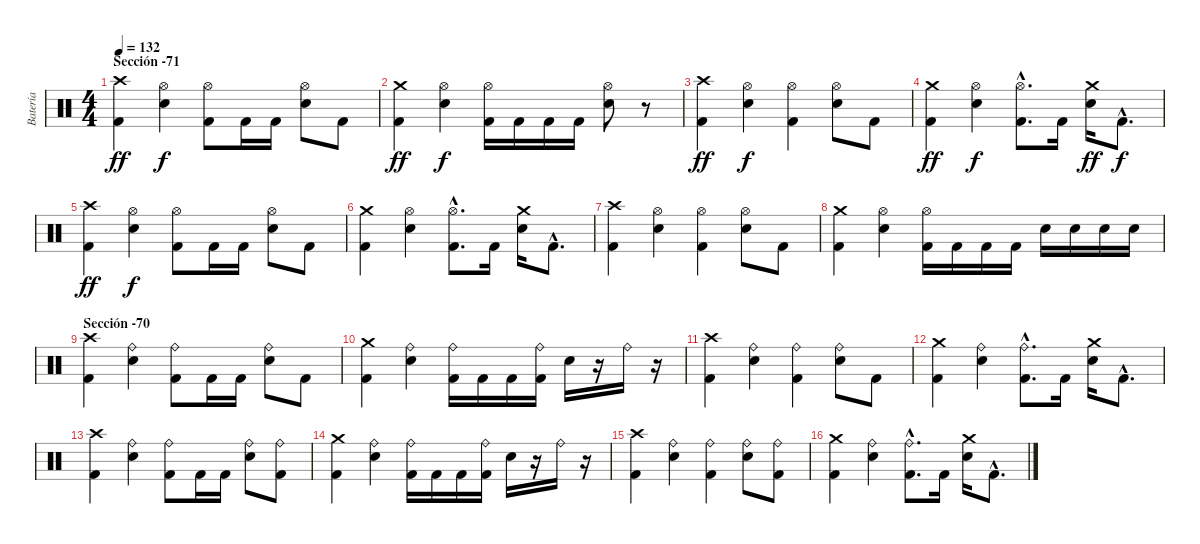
\track ("Batería" "Batería") {instrument percussion}
\staff {score}
\articulation defaults
\ts (4 4)
\section ("" "Sección -71")
\tempo 132
\clef neutral
\ks c
("Crash high (hit)" "Kick (hit) 2").4{dy ff volume 14} ("Hi-Hat (open)" "Snare (hit) 2").4{dy f} ("Hi-Hat (open)" "Kick (hit) 2").8 "Kick (hit) 2".16 "Kick (hit) 2".16 ("Hi-Hat (open)" "Snare (hit) 2").8 "Kick (hit) 2".8 |
("Crash medium (hit)" "Kick (hit) 2").4{dy ff} ("Hi-Hat (open)" "Snare (hit) 2").4{dy f} ("Hi-Hat (open)" "Kick (hit) 2").16 "Kick (hit) 2".16 "Kick (hit) 2".16 "Kick (hit) 2".16 ("Hi-Hat (open)" "Snare (hit) 2").8 r.8 |
("Crash high (hit)" "Kick (hit) 2").4{dy ff} ("Hi-Hat (open)" "Snare (hit) 2").4{dy f} ("Hi-Hat (open)" "Kick (hit) 2").4 ("Hi-Hat (open)" "Snare (hit) 2").8 "Kick (hit) 2".8 |
("Crash medium (hit)" "Kick (hit) 2").4{dy ff} ("Hi-Hat (open)" "Snare (hit) 2").4{dy f} ("Hi-Hat (open)"{hac} "Kick (hit) 2"{hac}).8{d} "Kick (hit) 2".16 ("Crash medium (hit)" "Snare (hit) 2").16{dy ff} "Kick (hit) 2"{hac}.8{d dy f} |
("Crash high (hit)" "Kick (hit) 2").4{dy ff} ("Hi-Hat (open)" "Snare (hit) 2").4{dy f} ("Hi-Hat (open)" "Kick (hit) 2").8 "Kick (hit) 2".16 "Kick (hit) 2".16 ("Hi-Hat (open)" "Snare (hit) 2").8 "Kick (hit) 2".8 |
("Crash medium (hit)" "Kick (hit) 2").4 ("Hi-Hat (open)" "Snare (hit) 2").4 ("Hi-Hat (open)"{hac} "Kick (hit) 2"{hac}).8{d} "Kick (hit) 2".16 ("Crash medium (hit)" "Snare (hit) 2").16 "Kick (hit) 2"{hac}.8{d} |
("Crash high (hit)" "Kick (hit) 2").4 ("Hi-Hat (open)" "Snare (hit) 2").4 ("Hi-Hat (open)" "Kick (hit) 2").4 ("Hi-Hat (open)" "Snare (hit) 2").8 "Kick (hit) 2".8 |
("Crash medium (hit)" "Kick (hit) 2").4 ("Hi-Hat (open)" "Snare (hit) 2").4 ("Hi-Hat (open)" "Kick (hit) 2").16 "Kick (hit) 2".16 "Kick (hit) 2".16 "Kick (hit) 2".16 "Snare (hit) 2".16 "Snare (hit) 2".16 "Snare (hit) 2".16 "Snare (hit) 2".16 |
\section ("" "Sección -70")
("Crash high (hit)" "Kick (hit) 2").4 ("Ride (bell)" "Snare (hit) 2").4 ("Ride (bell)" "Kick (hit) 2").8 "Kick (hit) 2".16 "Kick (hit) 2".16 ("Ride (bell)" "Snare (hit) 2").8 "Kick (hit) 2".8 |
("Crash medium (hit)" "Kick (hit) 2").4 ("Ride (bell)" "Snare (hit) 2").4 ("Ride (bell)" "Kick (hit) 2").16 "Kick (hit) 2".16 "Kick (hit) 2".16 ("Ride (bell)" "Kick (hit) 2").16 "Snare (hit) 2".16 r.16 "Ride (bell)".16 r.16 |
("Crash high (hit)" "Kick (hit) 2").4 ("Ride (bell)" "Snare (hit) 2").4 ("Ride (bell)" "Kick (hit) 2").4 ("Ride (bell)" "Snare (hit) 2").8 "Kick (hit) 2".8 |
("Crash medium (hit)" "Kick (hit) 2").4 ("Ride (bell)" "Snare (hit) 2").4 ("Ride (bell)"{hac} "Kick (hit) 2"{hac}).8{d} "Kick (hit) 2".16 ("Crash medium (hit)" "Snare (hit) 2").16 "Kick (hit) 2"{hac}.8{d} |
("Crash high (hit)" "Kick (hit) 2").4 ("Ride (bell)" "Snare (hit) 2").4 ("Ride (bell)" "Kick (hit) 2").8 "Kick (hit) 2".16 "Kick (hit) 2".16 ("Ride (bell)" "Snare (hit) 2").8 ("Ride (bell)" "Kick (hit) 2").8 |
("Crash medium (hit)" "Kick (hit) 2").4 ("Ride (bell)" "Snare (hit) 2").4 ("Ride (bell)" "Kick (hit) 2").16 "Kick (hit) 2".16 "Kick (hit) 2".16 ("Ride (bell)" "Kick (hit) 2").16 "Snare (hit) 2".16 r.16 "Ride (bell)".16 r.16 |
("Crash high (hit)" "Kick (hit) 2").4 ("Ride (bell)" "Snare (hit) 2").4 ("Ride (bell)" "Kick (hit) 2").4 ("Ride (bell)" "Snare (hit) 2").8 ("Ride (bell)" "Kick (hit) 2").8 |
("Crash medium (hit)" "Kick (hit) 2").4 ("Ride (bell)" "Snare (hit) 2").4 ("Ride (bell)"{hac} "Kick (hit) 2"{hac}).8{d} "Kick (hit) 2".16 ("Crash medium (hit)" "Snare (hit) 2").16 "Kick (hit) 2"{hac}.8{d}
